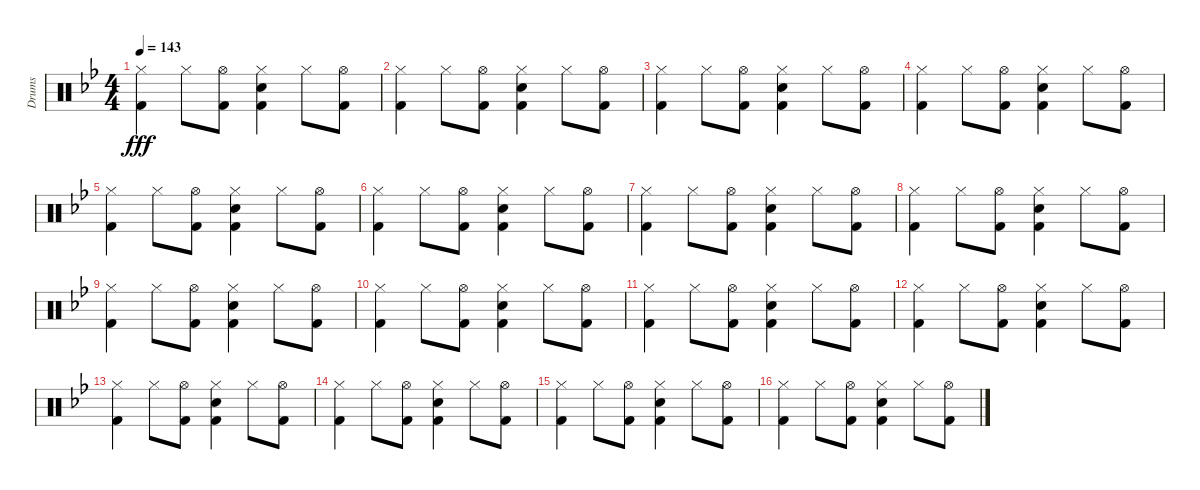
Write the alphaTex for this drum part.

\track ("Drums" "Drums") {instrument percussion}
\staff {score}
\articulation defaults
\ts (4 4)
\tempo 143
\clef neutral
\ks bb
("Hi-Hat (closed)" "Kick (hit) 2").4{dy fff} "Hi-Hat (closed)".8 ("Hi-Hat (open)" "Kick (hit) 2").8 ("Hi-Hat (closed)" "Snare (hit) 2" "Kick (hit) 2").4 "Hi-Hat (closed)".8 ("Hi-Hat (open)" "Kick (hit) 2").8 |
("Hi-Hat (closed)" "Kick (hit) 2").4{volume 13} "Hi-Hat (closed)".8 ("Hi-Hat (open)" "Kick (hit) 2").8 ("Hi-Hat (closed)" "Snare (hit) 2" "Kick (hit) 2").4 "Hi-Hat (closed)".8 ("Hi-Hat (open)" "Kick (hit) 2").8 |
("Hi-Hat (closed)" "Kick (hit) 2").4 "Hi-Hat (closed)".8 ("Hi-Hat (open)" "Kick (hit) 2").8 ("Hi-Hat (closed)" "Snare (hit) 2" "Kick (hit) 2").4 "Hi-Hat (closed)".8 ("Hi-Hat (open)" "Kick (hit) 2").8 |
("Hi-Hat (closed)" "Kick (hit) 2").4 "Hi-Hat (closed)".8 ("Hi-Hat (open)" "Kick (hit) 2").8 ("Hi-Hat (closed)" "Snare (hit) 2" "Kick (hit) 2").4 "Hi-Hat (closed)".8 ("Hi-Hat (open)" "Kick (hit) 2").8 |
("Hi-Hat (closed)" "Kick (hit) 2").4 "Hi-Hat (closed)".8 ("Hi-Hat (open)" "Kick (hit) 2").8 ("Hi-Hat (closed)" "Snare (hit) 2" "Kick (hit) 2").4 "Hi-Hat (closed)".8 ("Hi-Hat (open)" "Kick (hit) 2").8 |
("Hi-Hat (closed)" "Kick (hit) 2").4{volume 11} "Hi-Hat (closed)".8 ("Hi-Hat (open)" "Kick (hit) 2").8 ("Hi-Hat (closed)" "Snare (hit) 2" "Kick (hit) 2").4 "Hi-Hat (closed)".8 ("Hi-Hat (open)" "Kick (hit) 2").8 |
("Hi-Hat (closed)" "Kick (hit) 2").4 "Hi-Hat (closed)".8 ("Hi-Hat (open)" "Kick (hit) 2").8 ("Hi-Hat (closed)" "Snare (hit) 2" "Kick (hit) 2").4 "Hi-Hat (closed)".8 ("Hi-Hat (open)" "Kick (hit) 2").8 |
("Hi-Hat (closed)" "Kick (hit) 2").4 "Hi-Hat (closed)".8 ("Hi-Hat (open)" "Kick (hit) 2").8 ("Hi-Hat (closed)" "Snare (hit) 2" "Kick (hit) 2").4 "Hi-Hat (closed)".8 ("Hi-Hat (open)" "Kick (hit) 2").8 |
("Hi-Hat (closed)" "Kick (hit) 2").4 "Hi-Hat (closed)".8 ("Hi-Hat (open)" "Kick (hit) 2").8 ("Hi-Hat (closed)" "Snare (hit) 2" "Kick (hit) 2").4 "Hi-Hat (closed)".8 ("Hi-Hat (open)" "Kick (hit) 2").8 |
("Hi-Hat (closed)" "Kick (hit) 2").4{volume 8} "Hi-Hat (closed)".8 ("Hi-Hat (open)" "Kick (hit) 2").8 ("Hi-Hat (closed)" "Snare (hit) 2" "Kick (hit) 2").4 "Hi-Hat (closed)".8 ("Hi-Hat (open)" "Kick (hit) 2").8 |
("Hi-Hat (closed)" "Kick (hit) 2").4 "Hi-Hat (closed)".8 ("Hi-Hat (open)" "Kick (hit) 2").8 ("Hi-Hat (closed)" "Snare (hit) 2" "Kick (hit) 2").4 "Hi-Hat (closed)".8 ("Hi-Hat (open)" "Kick (hit) 2").8 |
("Hi-Hat (closed)" "Kick (hit) 2").4 "Hi-Hat (closed)".8 ("Hi-Hat (open)" "Kick (hit) 2").8 ("Hi-Hat (closed)" "Snare (hit) 2" "Kick (hit) 2").4 "Hi-Hat (closed)".8 ("Hi-Hat (open)" "Kick (hit) 2").8 |
("Hi-Hat (closed)" "Kick (hit) 2").4 "Hi-Hat (closed)".8 ("Hi-Hat (open)" "Kick (hit) 2").8 ("Hi-Hat (closed)" "Snare (hit) 2" "Kick (hit) 2").4 "Hi-Hat (closed)".8 ("Hi-Hat (open)" "Kick (hit) 2").8 |
("Hi-Hat (closed)" "Kick (hit) 2").4{volume 4} "Hi-Hat (closed)".8 ("Hi-Hat (open)" "Kick (hit) 2").8 ("Hi-Hat (closed)" "Snare (hit) 2" "Kick (hit) 2").4 "Hi-Hat (closed)".8 ("Hi-Hat (open)" "Kick (hit) 2").8 |
("Hi-Hat (closed)" "Kick (hit) 2").4 "Hi-Hat (closed)".8 ("Hi-Hat (open)" "Kick (hit) 2").8 ("Hi-Hat (closed)" "Snare (hit) 2" "Kick (hit) 2").4 "Hi-Hat (closed)".8 ("Hi-Hat (open)" "Kick (hit) 2").8 |
("Hi-Hat (closed)" "Kick (hit) 2").4 "Hi-Hat (closed)".8 ("Hi-Hat (open)" "Kick (hit) 2").8 ("Hi-Hat (closed)" "Snare (hit) 2" "Kick (hit) 2").4 "Hi-Hat (closed)".8 ("Hi-Hat (open)" "Kick (hit) 2").8
